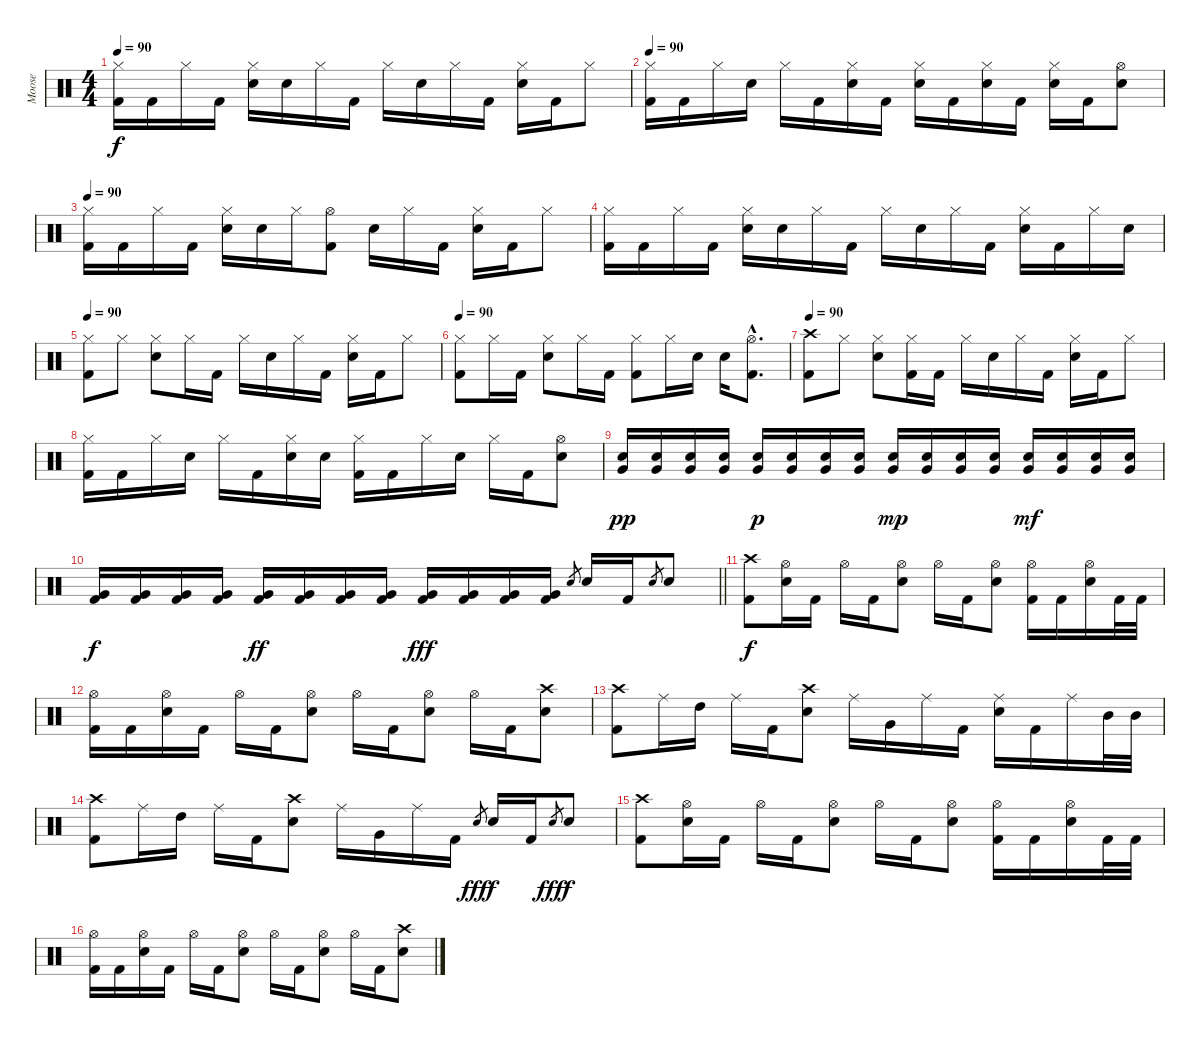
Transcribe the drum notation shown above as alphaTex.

\track ("Moose" "Moose") {instrument percussion}
\staff {score}
\articulation defaults
\ts (4 4)
\tempo 90
\clef neutral
\ks c
("Hi-Hat (closed)" "Kick (hit) 2").16{dy f} "Kick (hit) 2".16 "Hi-Hat (closed)".16 "Kick (hit) 2".16 ("Hi-Hat (closed)" "Snare (hit) 2").16 "Snare (hit) 2".16 "Hi-Hat (closed)".16 "Kick (hit) 2".16 "Hi-Hat (closed)".16 "Snare (hit) 2".16 "Hi-Hat (closed)".16 "Kick (hit) 2".16 ("Hi-Hat (closed)" "Snare (hit) 2").16 "Kick (hit) 2".16 "Hi-Hat (closed)".8 |
\tempo 90
("Hi-Hat (closed)" "Kick (hit) 2").16 "Kick (hit) 2".16 "Hi-Hat (closed)".16 "Snare (hit) 2".16 "Hi-Hat (closed)".16 "Kick (hit) 2".16 ("Hi-Hat (closed)" "Snare (hit) 2").16 "Kick (hit) 2".16 ("Hi-Hat (closed)" "Snare (hit) 2").16 "Kick (hit) 2".16 ("Hi-Hat (closed)" "Snare (hit) 2").16 "Kick (hit) 2".16 ("Hi-Hat (closed)" "Snare (hit) 2").16 "Kick (hit) 2".16 ("Hi-Hat (open)" "Snare (hit) 2").8 |
\tempo 90
("Hi-Hat (closed)" "Kick (hit) 2").16 "Kick (hit) 2".16 "Hi-Hat (closed)".16 "Kick (hit) 2".16 ("Hi-Hat (closed)" "Snare (hit) 2").16 "Snare (hit) 2".16 "Hi-Hat (closed)".16 ("Hi-Hat (open)" "Kick (hit) 2").8 "Snare (hit) 2".16 "Hi-Hat (closed)".16 "Kick (hit) 2".16 ("Hi-Hat (closed)" "Snare (hit) 2").16 "Kick (hit) 2".16 "Hi-Hat (closed)".8 |
("Hi-Hat (closed)" "Kick (hit) 2").16 "Kick (hit) 2".16 "Hi-Hat (closed)".16 "Kick (hit) 2".16 ("Hi-Hat (closed)" "Snare (hit) 2").16 "Snare (hit) 2".16 "Hi-Hat (closed)".16 "Kick (hit) 2".16 "Hi-Hat (closed)".16 "Snare (hit) 2".16 "Hi-Hat (closed)".16 "Kick (hit) 2".16 ("Hi-Hat (closed)" "Snare (hit) 2").16 "Kick (hit) 2".16 "Hi-Hat (closed)".16 "Snare (hit) 2".16 |
\tempo 90
("Hi-Hat (closed)" "Kick (hit) 2").8 "Hi-Hat (closed)".8 ("Hi-Hat (closed)" "Snare (hit) 2").8 "Hi-Hat (closed)".16 "Kick (hit) 2".16 "Hi-Hat (closed)".16 "Snare (hit) 2".16 "Hi-Hat (closed)".16 "Kick (hit) 2".16 ("Hi-Hat (closed)" "Snare (hit) 2").16 "Kick (hit) 2".16 "Hi-Hat (closed)".8 |
\tempo 90
("Hi-Hat (closed)" "Kick (hit) 2").8 "Hi-Hat (closed)".16 "Kick (hit) 2".16 ("Hi-Hat (closed)" "Snare (hit) 2").8 "Hi-Hat (closed)".16 "Kick (hit) 2".16 ("Hi-Hat (closed)" "Kick (hit) 2").8 "Hi-Hat (closed)".16 "Snare (hit) 2".16 "Snare (hit) 2".16 ("Hi-Hat (open)"{hac} "Kick (hit) 2"{hac}).8{d} |
\tempo 90
("Crash high (hit)" "Kick (hit) 2").8 "Hi-Hat (closed)".8 ("Hi-Hat (closed)" "Snare (hit) 2").8 ("Hi-Hat (closed)" "Kick (hit) 2").16 "Kick (hit) 2".16 "Hi-Hat (closed)".16 "Snare (hit) 2".16 "Hi-Hat (closed)".16 "Kick (hit) 2".16 ("Hi-Hat (closed)" "Snare (hit) 2").16 "Kick (hit) 2".16 "Hi-Hat (closed)".8 |
("Hi-Hat (closed)" "Kick (hit) 2").16 "Kick (hit) 2".16 "Hi-Hat (closed)".16 "Snare (hit) 2".16 "Hi-Hat (closed)".16 "Kick (hit) 2".16 ("Hi-Hat (closed)" "Snare (hit) 2").16 "Snare (hit) 2".16 ("Hi-Hat (closed)" "Kick (hit) 2").16 "Kick (hit) 2".16 "Hi-Hat (closed)".16 "Snare (hit) 2".16 "Hi-Hat (closed)".16 "Kick (hit) 2".16 ("Hi-Hat (open)" "Snare (hit) 2").8 |
("Snare (hit) 2" "Very Low Tom (hit)").16{dy pp} ("Snare (hit) 2" "Very Low Tom (hit)").16 ("Snare (hit) 2" "Very Low Tom (hit)").16 ("Snare (hit) 2" "Very Low Tom (hit)").16 ("Snare (hit) 2" "Very Low Tom (hit)").16{dy p} ("Snare (hit) 2" "Very Low Tom (hit)").16 ("Snare (hit) 2" "Very Low Tom (hit)").16 ("Snare (hit) 2" "Very Low Tom (hit)").16 ("Snare (hit) 2" "Very Low Tom (hit)").16{dy mp} ("Snare (hit) 2" "Very Low Tom (hit)").16 ("Snare (hit) 2" "Very Low Tom (hit)").16 ("Snare (hit) 2" "Very Low Tom (hit)").16 ("Snare (hit) 2" "Very Low Tom (hit)").16{dy mf} ("Snare (hit) 2" "Very Low Tom (hit)").16 ("Snare (hit) 2" "Very Low Tom (hit)").16 ("Snare (hit) 2" "Very Low Tom (hit)").16 |
\barLineRight lightlight
("Kick (hit) 2" "Very Low Tom (hit)").16{dy f} ("Kick (hit) 2" "Very Low Tom (hit)").16 ("Kick (hit) 2" "Very Low Tom (hit)").16 ("Kick (hit) 2" "Very Low Tom (hit)").16 ("Kick (hit) 2" "Very Low Tom (hit)").16{dy ff} ("Kick (hit) 2" "Very Low Tom (hit)").16 ("Kick (hit) 2" "Very Low Tom (hit)").16 ("Kick (hit) 2" "Very Low Tom (hit)").16 ("Kick (hit) 2" "Very Low Tom (hit)").16{dy fff} ("Kick (hit) 2" "Very Low Tom (hit)").16 ("Kick (hit) 2" "Very Low Tom (hit)").16 ("Kick (hit) 2" "Very Low Tom (hit)").16 "Snare (hit) 2".8{gr} "Snare (hit) 2".16 "Kick (hit) 2".16 "Snare (hit) 2".8{gr} "Snare (hit) 2".8 |
("Crash high (hit)" "Kick (hit) 2").8{dy f} ("Hi-Hat (open)" "Snare (hit) 2").16 "Kick (hit) 2".16 "Hi-Hat (open)".16 "Kick (hit) 2".16 ("Hi-Hat (open)" "Snare (hit) 2").8 "Hi-Hat (open)".16 "Kick (hit) 2".16 ("Hi-Hat (open)" "Snare (hit) 2").8 ("Hi-Hat (open)" "Kick (hit) 2").16 "Kick (hit) 2".16 ("Hi-Hat (open)" "Snare (hit) 2").16 "Kick (hit) 2".32 "Kick (hit) 2".32 |
("Hi-Hat (open)" "Kick (hit) 2").16 "Kick (hit) 2".16 ("Hi-Hat (open)" "Snare (hit) 2").16 "Kick (hit) 2".16 "Hi-Hat (open)".16 "Kick (hit) 2".16 ("Hi-Hat (open)" "Snare (hit) 2").8 "Hi-Hat (open)".16 "Kick (hit) 2".16 ("Hi-Hat (open)" "Snare (hit) 2").8 "Hi-Hat (open)".16 "Kick (hit) 2".16 ("Crash high (hit)" "Snare (hit) 2").8 |
("Crash high (hit)" "Kick (hit) 2").8 "Ride (middle)".16 "High Tom (hit)".16 "Ride (middle)".16 "Kick (hit) 2".16 ("Crash high (hit)" "Snare (hit) 2").8 "Ride (middle)".16 "Very Low Tom (hit)".16 "Ride (middle)".16 "Kick (hit) 2".16 ("Ride (middle)" "Snare (hit) 2").16 "Kick (hit) 2".16 "Ride (middle)".16 "Mid Tom (hit)".32 "Mid Tom (hit)".32 |
("Crash high (hit)" "Kick (hit) 2").8 "Ride (middle)".16 "High Tom (hit)".16 "Ride (middle)".16 "Kick (hit) 2".16 ("Crash high (hit)" "Snare (hit) 2").8 "Ride (middle)".16 "Very Low Tom (hit)".16 "Ride (middle)".16 "Kick (hit) 2".16 "Snare (hit) 2".8{gr dy fff} "Snare (hit) 2".16{dy f} "Kick (hit) 2".16 "Snare (hit) 2".8{gr dy fff} "Snare (hit) 2".8{dy f} |
("Crash high (hit)" "Kick (hit) 2").8 ("Hi-Hat (open)" "Snare (hit) 2").16 "Kick (hit) 2".16 "Hi-Hat (open)".16 "Kick (hit) 2".16 ("Hi-Hat (open)" "Snare (hit) 2").8 "Hi-Hat (open)".16 "Kick (hit) 2".16 ("Hi-Hat (open)" "Snare (hit) 2").8 ("Hi-Hat (open)" "Kick (hit) 2").16 "Kick (hit) 2".16 ("Hi-Hat (open)" "Snare (hit) 2").16 "Kick (hit) 2".32 "Kick (hit) 2".32 |
("Hi-Hat (open)" "Kick (hit) 2").16 "Kick (hit) 2".16 ("Hi-Hat (open)" "Snare (hit) 2").16 "Kick (hit) 2".16 "Hi-Hat (open)".16 "Kick (hit) 2".16 ("Hi-Hat (open)" "Snare (hit) 2").8 "Hi-Hat (open)".16 "Kick (hit) 2".16 ("Hi-Hat (open)" "Snare (hit) 2").8 "Hi-Hat (open)".16 "Kick (hit) 2".16 ("Crash high (hit)" "Snare (hit) 2").8
